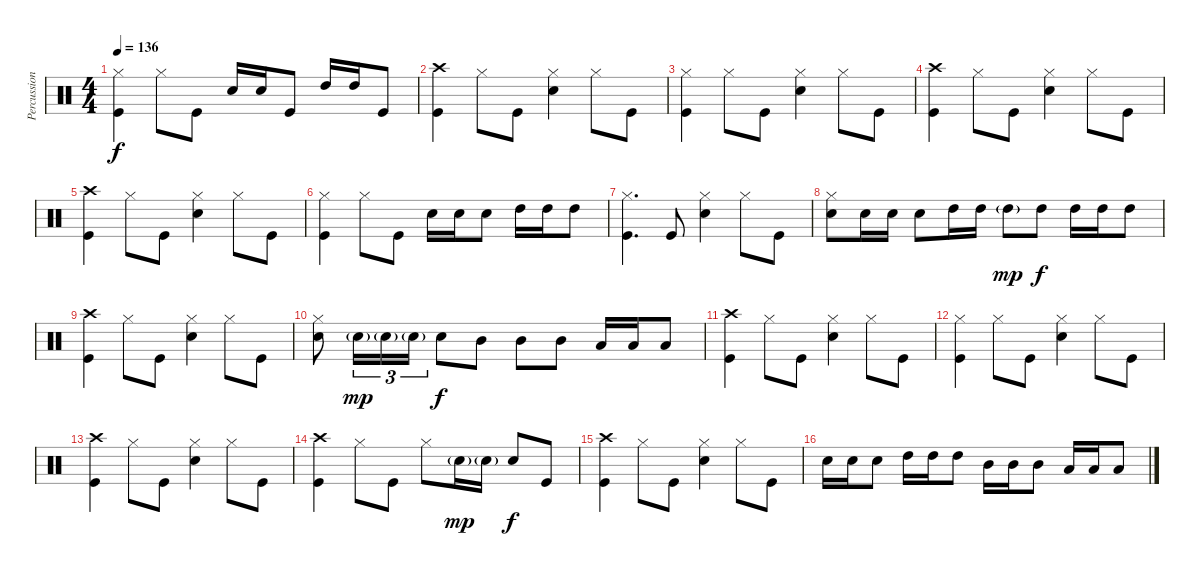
\track ("Percussion" "Percussion") {instrument percussion}
\staff {score}
\articulation defaults
\ts (4 4)
\tempo 136
\clef neutral
\ks c
("Hi-Hat (closed)" "Kick (hit)").4{dy f} "Hi-Hat (closed)".8 "Kick (hit)".8 "Snare (hit) 2".16 "Snare (hit) 2".16 "Kick (hit)".8 "High Tom (hit)".16 "High Tom (hit)".16 "Kick (hit)".8 |
("Crash high (hit)" "Kick (hit)").4 "Hi-Hat (closed)".8 "Kick (hit)".8 ("Hi-Hat (closed)" "Snare (hit) 2").4 "Hi-Hat (closed)".8 "Kick (hit)".8 |
("Hi-Hat (closed)" "Kick (hit)").4 "Hi-Hat (closed)".8 "Kick (hit)".8 ("Hi-Hat (closed)" "Snare (hit) 2").4 "Hi-Hat (closed)".8 "Kick (hit)".8 |
("Crash high (hit)" "Kick (hit)").4 "Hi-Hat (closed)".8 "Kick (hit)".8 ("Hi-Hat (closed)" "Snare (hit) 2").4 "Hi-Hat (closed)".8 "Kick (hit)".8 |
("Crash high (hit)" "Kick (hit)").4 "Hi-Hat (closed)".8 "Kick (hit)".8 ("Hi-Hat (closed)" "Snare (hit) 2").4 "Hi-Hat (closed)".8 "Kick (hit)".8 |
("Hi-Hat (closed)" "Kick (hit)").4 "Hi-Hat (closed)".8 "Kick (hit)".8 "Snare (hit) 2".16 "Snare (hit) 2".16 "Snare (hit) 2".8 "High Tom (hit)".16 "High Tom (hit)".16 "High Tom (hit)".8 |
("Hi-Hat (closed)" "Kick (hit)").4{d} "Kick (hit)".8 ("Hi-Hat (closed)" "Snare (hit) 2").4 "Hi-Hat (closed)".8 "Kick (hit)".8 |
("Hi-Hat (closed)" "Snare (hit) 2").8 "Snare (hit) 2".16 "Snare (hit) 2".16 "Snare (hit) 2".8 "High Tom (hit)".16 "High Tom (hit)".16 "High Tom (hit)"{g}.8{dy mp} "High Tom (hit)".8{dy f} "High Tom (hit)".16 "High Tom (hit)".16 "High Tom (hit)".8 |
("Crash high (hit)" "Kick (hit)").4 "Hi-Hat (closed)".8 "Kick (hit)".8 ("Hi-Hat (closed)" "Snare (hit) 2").4 "Hi-Hat (closed)".8 "Kick (hit)".8 |
("Hi-Hat (closed)" "Snare (hit) 2").8 "Snare (hit) 2"{g}.16{tu (3 2) dy mp} "Snare (hit) 2"{g}.16{tu (3 2)} "Snare (hit) 2"{g}.16{tu (3 2)} "Snare (hit) 2".8{dy f} "Mid Tom (hit)".8 "Mid Tom (hit)".8 "Mid Tom (hit)".8 "Low Floor Tom (hit)".16 "Low Floor Tom (hit)".16 "Low Floor Tom (hit)".8 |
("Crash high (hit)" "Kick (hit)").4 "Hi-Hat (closed)".8 "Kick (hit)".8 ("Hi-Hat (closed)" "Snare (hit) 2").4 "Hi-Hat (closed)".8 "Kick (hit)".8 |
("Hi-Hat (closed)" "Kick (hit)").4 "Hi-Hat (closed)".8 "Kick (hit)".8 ("Hi-Hat (closed)" "Snare (hit) 2").4 "Hi-Hat (closed)".8 "Kick (hit)".8 |
("Crash high (hit)" "Kick (hit)").4 "Hi-Hat (closed)".8 "Kick (hit)".8 ("Hi-Hat (closed)" "Snare (hit) 2").4 "Hi-Hat (closed)".8 "Kick (hit)".8 |
("Crash high (hit)" "Kick (hit)").4 "Hi-Hat (closed)".8 "Kick (hit)".8 "Hi-Hat (closed)".8 "Snare (hit) 2"{g}.16{dy mp} "Snare (hit) 2"{g}.16 "Snare (hit) 2".8{dy f} "Kick (hit)".8 |
("Crash high (hit)" "Kick (hit)").4 "Hi-Hat (closed)".8 "Kick (hit)".8 ("Hi-Hat (closed)" "Snare (hit) 2").4 "Hi-Hat (closed)".8 "Kick (hit)".8 |
"Snare (hit) 2".16 "Snare (hit) 2".16 "Snare (hit) 2".8 "High Tom (hit)".16 "High Tom (hit)".16 "High Tom (hit)".8 "Mid Tom (hit)".16 "Mid Tom (hit)".16 "Mid Tom (hit)".8 "Low Floor Tom (hit)".16 "Low Floor Tom (hit)".16 "Low Floor Tom (hit)".8
